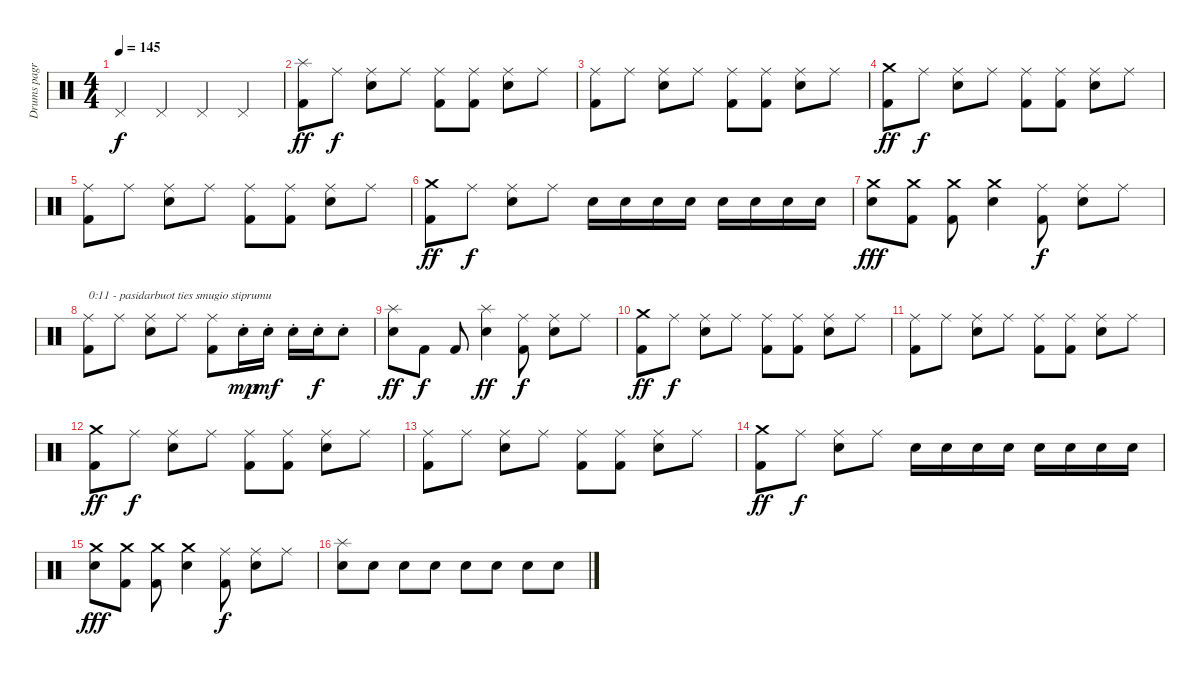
\track ("Drums pagr" "Drums pagr") {instrument percussion}
\staff {score}
\articulation defaults
\ts (4 4)
\tempo 145
\clef neutral
\ks c "Pedal Hi-Hat (hit)".4{dy f} "Pedal Hi-Hat (hit)".4 "Pedal Hi-Hat (hit)".4 "Pedal Hi-Hat (hit)".4
|
("Splash (hit)" "Kick (hit) 2").8{dy ff} "Ride (middle)".8{dy f} ("Ride (middle)" "Snare (hit) 2").8 "Ride (middle)".8 ("Ride (middle)" "Kick (hit) 2").8 ("Ride (middle)" "Kick (hit) 2").8 ("Ride (middle)" "Snare (hit) 2").8 "Ride (middle)".8 |
("Ride (middle)" "Kick (hit) 2").8 "Ride (middle)".8 ("Ride (middle)" "Snare (hit) 2").8 "Ride (middle)".8 ("Ride (middle)" "Kick (hit) 2").8 ("Ride (middle)" "Kick (hit) 2").8 ("Ride (middle)" "Snare (hit) 2").8 "Ride (middle)".8 |
("Crash medium (hit)" "Kick (hit) 2").8{dy ff} "Ride (middle)".8{dy f} ("Ride (middle)" "Snare (hit) 2").8 "Ride (middle)".8 ("Ride (middle)" "Kick (hit) 2").8 ("Ride (middle)" "Kick (hit) 2").8 ("Ride (middle)" "Snare (hit) 2").8 "Ride (middle)".8 |
("Ride (middle)" "Kick (hit) 2").8 "Ride (middle)".8 ("Ride (middle)" "Snare (hit) 2").8 "Ride (middle)".8 ("Ride (middle)" "Kick (hit) 2").8 ("Ride (middle)" "Kick (hit) 2").8 ("Ride (middle)" "Snare (hit) 2").8 "Ride (middle)".8 |
("Crash medium (hit)" "Kick (hit) 2").8{dy ff} "Ride (middle)".8{dy f} ("Ride (middle)" "Snare (hit) 2").8 "Ride (middle)".8 "Snare (hit) 2".16 "Snare (hit) 2".16 "Snare (hit) 2".16 "Snare (hit) 2".16 "Snare (hit) 2".16 "Snare (hit) 2".16 "Snare (hit) 2".16 "Snare (hit) 2".16 |
("Crash medium (hit)" "Snare (hit) 2").8{dy fff} ("Crash medium (hit)" "Kick (hit) 2").8 ("Crash medium (hit)" "Kick (hit) 2").8 ("Crash medium (hit)" "Snare (hit) 2").4 ("Ride (middle)" "Kick (hit) 2").8{dy f} ("Ride (middle)" "Snare (hit) 2").8 "Ride (middle)".8 |
("Ride (middle)" "Kick (hit) 2").8{txt "0:11 - pasidarbuot ties smugio stiprumu"} "Ride (middle)".8 ("Ride (middle)" "Snare (hit) 2").8 "Ride (middle)".8 ("Ride (middle)" "Kick (hit) 2").8 "Snare (hit) 2"{st}.16{dy mp} "Snare (hit) 2"{st}.16{dy mf} "Snare (hit) 2"{st}.16 "Snare (hit) 2"{st}.16{dy f} "Snare (hit) 2"{st}.8 |
("Splash (hit)" "Snare (hit) 2").8{dy ff} "Kick (hit) 2".8{dy f} "Kick (hit) 2".8 ("Splash (hit)" "Snare (hit) 2").4{dy ff} ("Ride (middle)" "Kick (hit) 2").8{dy f} ("Ride (middle)" "Snare (hit) 2").8 "Ride (middle)".8 |
("Crash medium (hit)" "Kick (hit) 2").8{dy ff} "Ride (middle)".8{dy f} ("Ride (middle)" "Snare (hit) 2").8 "Ride (middle)".8 ("Ride (middle)" "Kick (hit) 2").8 ("Ride (middle)" "Kick (hit) 2").8 ("Ride (middle)" "Snare (hit) 2").8 "Ride (middle)".8 |
("Ride (middle)" "Kick (hit) 2").8 "Ride (middle)".8 ("Ride (middle)" "Snare (hit) 2").8 "Ride (middle)".8 ("Ride (middle)" "Kick (hit) 2").8 ("Ride (middle)" "Kick (hit) 2").8 ("Ride (middle)" "Snare (hit) 2").8 "Ride (middle)".8 |
("Crash medium (hit)" "Kick (hit) 2").8{dy ff} "Ride (middle)".8{dy f} ("Ride (middle)" "Snare (hit) 2").8 "Ride (middle)".8 ("Ride (middle)" "Kick (hit) 2").8 ("Ride (middle)" "Kick (hit) 2").8 ("Ride (middle)" "Snare (hit) 2").8 "Ride (middle)".8 |
("Ride (middle)" "Kick (hit) 2").8 "Ride (middle)".8 ("Ride (middle)" "Snare (hit) 2").8 "Ride (middle)".8 ("Ride (middle)" "Kick (hit) 2").8 ("Ride (middle)" "Kick (hit) 2").8 ("Ride (middle)" "Snare (hit) 2").8 "Ride (middle)".8 |
("Crash medium (hit)" "Kick (hit) 2").8{dy ff} "Ride (middle)".8{dy f} ("Ride (middle)" "Snare (hit) 2").8 "Ride (middle)".8 "Snare (hit) 2".16 "Snare (hit) 2".16 "Snare (hit) 2".16 "Snare (hit) 2".16 "Snare (hit) 2".16 "Snare (hit) 2".16 "Snare (hit) 2".16 "Snare (hit) 2".16 |
("Crash medium (hit)" "Snare (hit) 2").8{dy fff} ("Crash medium (hit)" "Kick (hit) 2").8 ("Crash medium (hit)" "Kick (hit) 2").8 ("Crash medium (hit)" "Snare (hit) 2").4 ("Ride (middle)" "Kick (hit) 2").8{dy f} ("Ride (middle)" "Snare (hit) 2").8 "Ride (middle)".8 |
("Splash (hit)" "Snare (hit) 2").8 "Snare (hit) 2".8 "Snare (hit) 2".8 "Snare (hit) 2".8 "Snare (hit) 2".8 "Snare (hit) 2".8 "Snare (hit) 2".8 "Snare (hit) 2".8
